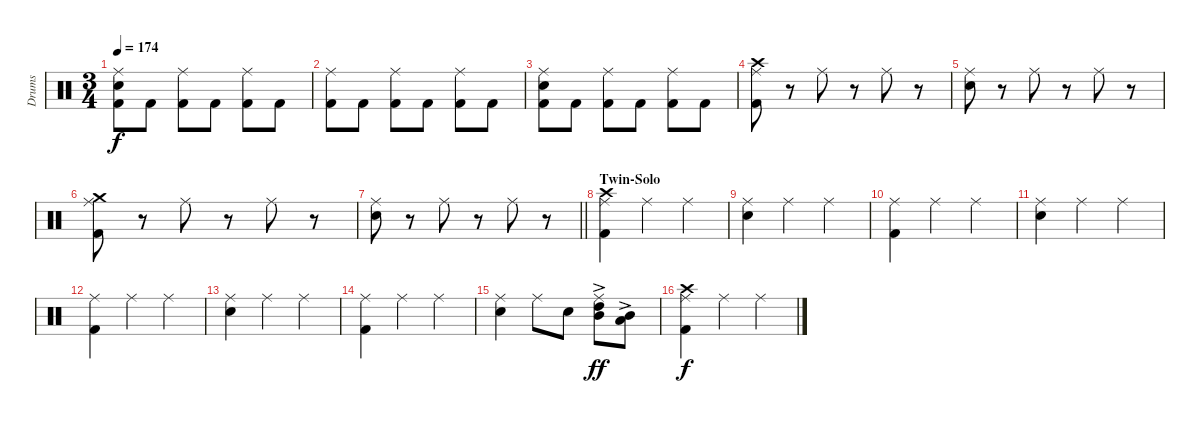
\track ("Drums" "Drums") {instrument percussion}
\staff {score}
\articulation defaults
\ts (3 4)
\tempo 174
\clef neutral
\ks c
("Ride (middle)" "Snare (hit) 2" "Kick (hit) 2").8{dy f} "Kick (hit) 2".8 ("Ride (middle)" "Kick (hit) 2").8 "Kick (hit) 2".8 ("Ride (middle)" "Kick (hit) 2").8 "Kick (hit) 2".8 |
("Ride (middle)" "Kick (hit) 2").8 "Kick (hit) 2".8 ("Ride (middle)" "Kick (hit) 2").8 "Kick (hit) 2".8 ("Ride (middle)" "Kick (hit) 2").8 "Kick (hit) 2".8 |
("Ride (middle)" "Snare (hit) 2" "Kick (hit) 2").8 "Kick (hit) 2".8 ("Ride (middle)" "Kick (hit) 2").8 "Kick (hit) 2".8 ("Ride (middle)" "Kick (hit) 2").8 "Kick (hit) 2".8 |
("Crash high (hit)" "Ride (middle)" "Kick (hit) 2").8 r.8 "Ride (middle)".8 r.8 "Ride (middle)".8 r.8 |
("Ride (middle)" "Snare (hit) 2").8 r.8 "Ride (middle)".8 r.8 "Ride (middle)".8 r.8 |
("Crash medium (hit)" "Ride (middle)" "Kick (hit) 2").8 r.8 "Ride (middle)".8 r.8 "Ride (middle)".8 r.8 |
\barLineRight lightlight
("Ride (middle)" "Snare (hit) 2").8 r.8 "Ride (middle)".8 r.8 "Ride (middle)".8 r.8 |
\section ("" "Twin-Solo")
("Crash high (hit)" "Ride (middle)" "Kick (hit) 2").4 "Ride (middle)".4 "Ride (middle)".4 |
("Ride (middle)" "Snare (hit) 2").4 "Ride (middle)".4 "Ride (middle)".4 |
("Ride (middle)" "Kick (hit) 2").4 "Ride (middle)".4 "Ride (middle)".4 |
("Ride (middle)" "Snare (hit) 2").4 "Ride (middle)".4 "Ride (middle)".4 |
("Ride (middle)" "Kick (hit) 2").4 "Ride (middle)".4 "Ride (middle)".4 |
("Ride (middle)" "Snare (hit) 2").4 "Ride (middle)".4 "Ride (middle)".4 |
("Ride (middle)" "Kick (hit) 2").4 "Ride (middle)".4 "Ride (middle)".4 |
("Ride (middle)" "Snare (hit) 2").4 "Ride (middle)".8 "Snare (hit) 2".8 ("Ride (middle)" "High Tom (hit)"{ac} "Mid Tom (hit)"{ac}).8{dy ff} ("Mid Tom (hit)"{ac} "Low Tom (hit)"{ac}).8 |
("Crash high (hit)" "Ride (middle)" "Kick (hit) 2").4{dy f} "Ride (middle)".4 "Ride (middle)".4
